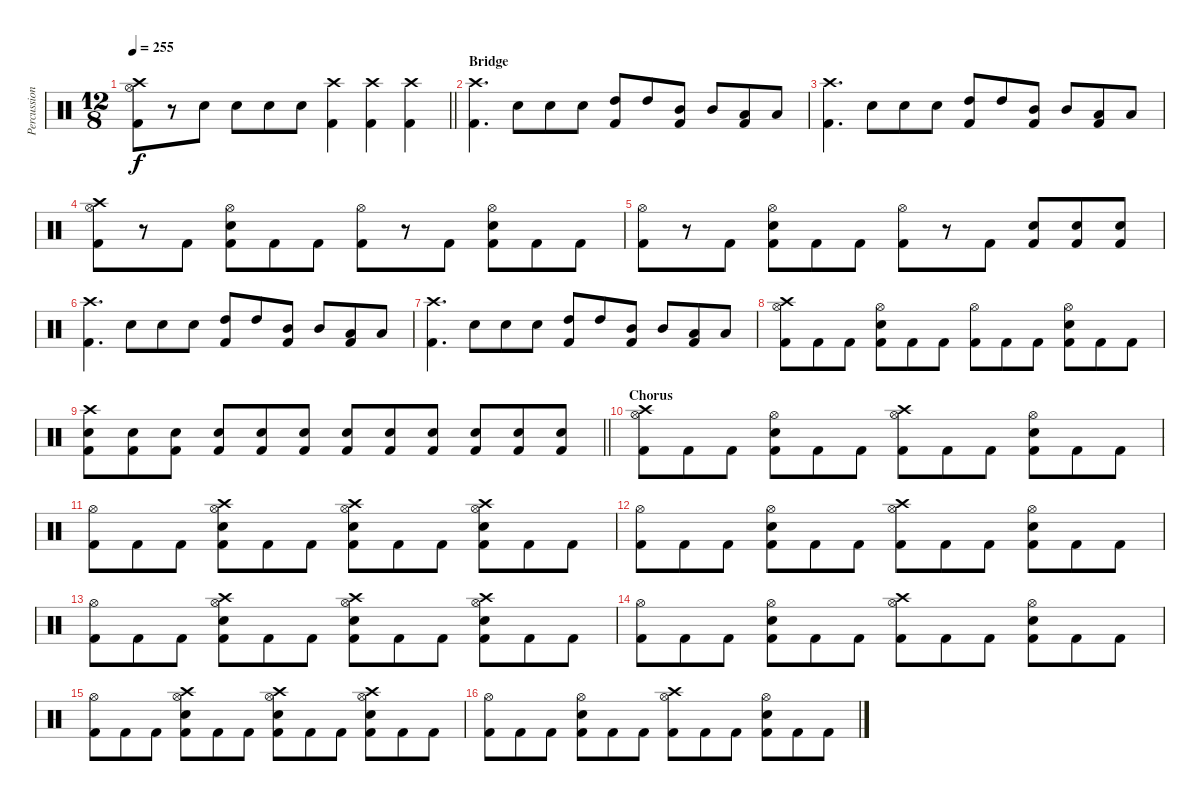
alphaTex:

\track ("Percussion" "Percussion") {instrument percussion}
\staff {score}
\articulation defaults
\ts (12 8)
\tempo 255
\clef neutral
\barLineRight lightlight
\ks c
("Crash high (hit)" "Hi-Hat (open)" "Kick (hit) 2").8{dy f} r.8 "Snare (hit) 2".8 "Snare (hit) 2".8 "Snare (hit) 2".8 "Snare (hit) 2".8 ("Crash high (hit)" "Kick (hit) 2").4 ("Crash high (hit)" "Kick (hit) 2").4 ("Crash high (hit)" "Kick (hit) 2").4 |
\section ("" "Bridge")
("Crash high (hit)" "Kick (hit) 2").4{d} "Snare (hit) 2".8 "Snare (hit) 2".8 "Snare (hit) 2".8 ("High Tom (hit)" "Kick (hit) 2").8 "High Tom (hit)".8 ("Mid Tom (hit)" "Kick (hit) 2").8 "Mid Tom (hit)".8 ("Low Tom (hit)" "Kick (hit) 2").8 "Low Tom (hit)".8 |
("Crash high (hit)" "Kick (hit) 2").4{d} "Snare (hit) 2".8 "Snare (hit) 2".8 "Snare (hit) 2".8 ("High Tom (hit)" "Kick (hit) 2").8 "High Tom (hit)".8 ("Mid Tom (hit)" "Kick (hit) 2").8 "Mid Tom (hit)".8 ("Low Tom (hit)" "Kick (hit) 2").8 "Low Tom (hit)".8 |
("Crash high (hit)" "Hi-Hat (open)" "Kick (hit) 2").8 r.8 "Kick (hit) 2".8 ("Hi-Hat (open)" "Snare (hit) 2" "Kick (hit) 2").8 "Kick (hit) 2".8 "Kick (hit) 2".8 ("Hi-Hat (open)" "Kick (hit) 2").8 r.8 "Kick (hit) 2".8 ("Hi-Hat (open)" "Snare (hit) 2" "Kick (hit) 2").8 "Kick (hit) 2".8 "Kick (hit) 2".8 |
("Hi-Hat (open)" "Kick (hit) 2").8 r.8 "Kick (hit) 2".8 ("Hi-Hat (open)" "Snare (hit) 2" "Kick (hit) 2").8 "Kick (hit) 2".8 "Kick (hit) 2".8 ("Hi-Hat (open)" "Kick (hit) 2").8 r.8 "Kick (hit) 2".8 ("Snare (hit) 2" "Kick (hit) 2").8 ("Snare (hit) 2" "Kick (hit) 2").8 ("Snare (hit) 2" "Kick (hit) 2").8 |
("Crash high (hit)" "Kick (hit) 2").4{d} "Snare (hit) 2".8 "Snare (hit) 2".8 "Snare (hit) 2".8 ("High Tom (hit)" "Kick (hit) 2").8 "High Tom (hit)".8 ("Mid Tom (hit)" "Kick (hit) 2").8 "Mid Tom (hit)".8 ("Low Tom (hit)" "Kick (hit) 2").8 "Low Tom (hit)".8 |
("Crash high (hit)" "Kick (hit) 2").4{d} "Snare (hit) 2".8 "Snare (hit) 2".8 "Snare (hit) 2".8 ("High Tom (hit)" "Kick (hit) 2").8 "High Tom (hit)".8 ("Mid Tom (hit)" "Kick (hit) 2").8 "Mid Tom (hit)".8 ("Low Tom (hit)" "Kick (hit) 2").8 "Low Tom (hit)".8 |
("Crash high (hit)" "Hi-Hat (open)" "Kick (hit) 2").8 "Kick (hit) 2".8 "Kick (hit) 2".8 ("Hi-Hat (open)" "Snare (hit) 2" "Kick (hit) 2").8 "Kick (hit) 2".8 "Kick (hit) 2".8 ("Hi-Hat (open)" "Kick (hit) 2").8 "Kick (hit) 2".8 "Kick (hit) 2".8 ("Hi-Hat (open)" "Snare (hit) 2" "Kick (hit) 2").8 "Kick (hit) 2".8 "Kick (hit) 2".8 |
\barLineRight lightlight
("Crash high (hit)" "Snare (hit) 2" "Kick (hit) 2").8 ("Snare (hit) 2" "Kick (hit) 2").8 ("Snare (hit) 2" "Kick (hit) 2").8 ("Snare (hit) 2" "Kick (hit) 2").8 ("Snare (hit) 2" "Kick (hit) 2").8 ("Snare (hit) 2" "Kick (hit) 2").8 ("Snare (hit) 2" "Kick (hit) 2").8 ("Snare (hit) 2" "Kick (hit) 2").8 ("Snare (hit) 2" "Kick (hit) 2").8 ("Snare (hit) 2" "Kick (hit) 2").8 ("Snare (hit) 2" "Kick (hit) 2").8 ("Snare (hit) 2" "Kick (hit) 2").8 |
\section ("" "Chorus")
("Crash high (hit)" "Hi-Hat (open)" "Kick (hit) 2").8 "Kick (hit) 2".8 "Kick (hit) 2".8 ("Hi-Hat (open)" "Snare (hit) 2" "Kick (hit) 2").8 "Kick (hit) 2".8 "Kick (hit) 2".8 ("Crash high (hit)" "Hi-Hat (open)" "Kick (hit) 2").8 "Kick (hit) 2".8 "Kick (hit) 2".8 ("Hi-Hat (open)" "Snare (hit) 2" "Kick (hit) 2").8 "Kick (hit) 2".8 "Kick (hit) 2".8 |
("Hi-Hat (open)" "Kick (hit) 2").8 "Kick (hit) 2".8 "Kick (hit) 2".8 ("Crash high (hit)" "Hi-Hat (open)" "Snare (hit) 2" "Kick (hit) 2").8 "Kick (hit) 2".8 "Kick (hit) 2".8 ("Crash high (hit)" "Hi-Hat (open)" "Snare (hit) 2" "Kick (hit) 2").8 "Kick (hit) 2".8 "Kick (hit) 2".8 ("Crash high (hit)" "Hi-Hat (open)" "Snare (hit) 2" "Kick (hit) 2").8 "Kick (hit) 2".8 "Kick (hit) 2".8 |
("Hi-Hat (open)" "Kick (hit) 2").8 "Kick (hit) 2".8 "Kick (hit) 2".8 ("Hi-Hat (open)" "Snare (hit) 2" "Kick (hit) 2").8 "Kick (hit) 2".8 "Kick (hit) 2".8 ("Crash high (hit)" "Hi-Hat (open)" "Kick (hit) 2").8 "Kick (hit) 2".8 "Kick (hit) 2".8 ("Hi-Hat (open)" "Snare (hit) 2" "Kick (hit) 2").8 "Kick (hit) 2".8 "Kick (hit) 2".8 |
("Hi-Hat (open)" "Kick (hit) 2").8 "Kick (hit) 2".8 "Kick (hit) 2".8 ("Crash high (hit)" "Hi-Hat (open)" "Snare (hit) 2" "Kick (hit) 2").8 "Kick (hit) 2".8 "Kick (hit) 2".8 ("Crash high (hit)" "Hi-Hat (open)" "Snare (hit) 2" "Kick (hit) 2").8 "Kick (hit) 2".8 "Kick (hit) 2".8 ("Crash high (hit)" "Hi-Hat (open)" "Snare (hit) 2" "Kick (hit) 2").8 "Kick (hit) 2".8 "Kick (hit) 2".8 |
("Hi-Hat (open)" "Kick (hit) 2").8 "Kick (hit) 2".8 "Kick (hit) 2".8 ("Hi-Hat (open)" "Snare (hit) 2" "Kick (hit) 2").8 "Kick (hit) 2".8 "Kick (hit) 2".8 ("Crash high (hit)" "Hi-Hat (open)" "Kick (hit) 2").8 "Kick (hit) 2".8 "Kick (hit) 2".8 ("Hi-Hat (open)" "Snare (hit) 2" "Kick (hit) 2").8 "Kick (hit) 2".8 "Kick (hit) 2".8 |
("Hi-Hat (open)" "Kick (hit) 2").8 "Kick (hit) 2".8 "Kick (hit) 2".8 ("Crash high (hit)" "Hi-Hat (open)" "Snare (hit) 2" "Kick (hit) 2").8 "Kick (hit) 2".8 "Kick (hit) 2".8 ("Crash high (hit)" "Hi-Hat (open)" "Snare (hit) 2" "Kick (hit) 2").8 "Kick (hit) 2".8 "Kick (hit) 2".8 ("Crash high (hit)" "Hi-Hat (open)" "Snare (hit) 2" "Kick (hit) 2").8 "Kick (hit) 2".8 "Kick (hit) 2".8 |
("Hi-Hat (open)" "Kick (hit) 2").8 "Kick (hit) 2".8 "Kick (hit) 2".8 ("Hi-Hat (open)" "Snare (hit) 2" "Kick (hit) 2").8 "Kick (hit) 2".8 "Kick (hit) 2".8 ("Crash high (hit)" "Hi-Hat (open)" "Kick (hit) 2").8 "Kick (hit) 2".8 "Kick (hit) 2".8 ("Hi-Hat (open)" "Snare (hit) 2" "Kick (hit) 2").8 "Kick (hit) 2".8 "Kick (hit) 2".8
